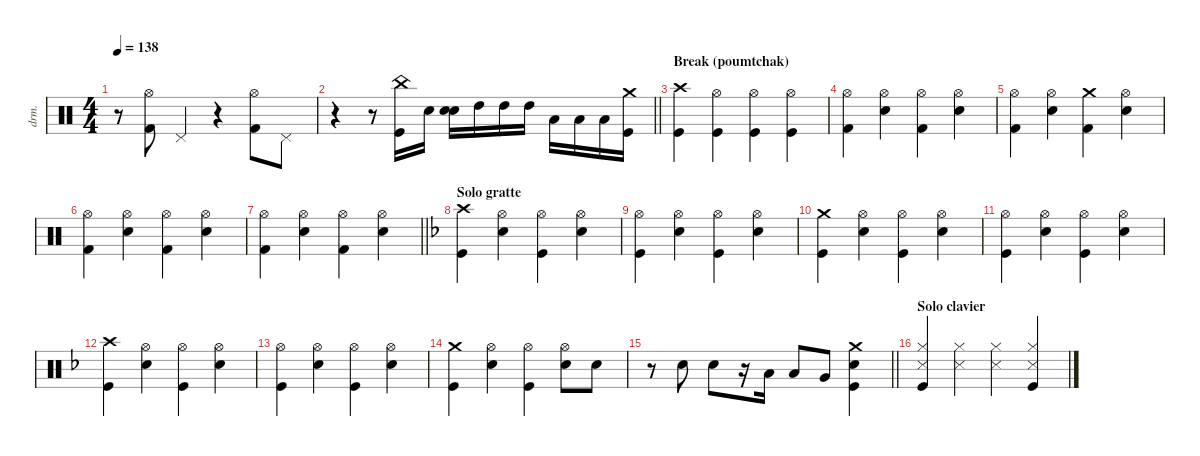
\defaultSystemsLayout 4
\hideDynamics
\bracketExtendMode nobrackets
\track ("Percussions" "drm.") {instrument percussion}
\staff {score}
\articulation defaults
\ts (4 4)
\tempo 138
\clef neutral
\ks aminor
r.8{dy f} ("Kick (hit) 2" "Hi-Hat (open)").8 "Pedal Hi-Hat (hit)".4 r.4 ("Kick (hit) 2" "Hi-Hat (open)").8 "Pedal Hi-Hat (hit)".8 |
\barLineRight lightlight
r.4 r.8 ("China (hit)" "Kick (hit)").16 "Snare (hit) 2".16 ("Snare (hit) 2" "Snare (hit) 2").16 "High Tom (hit)".16 "High Tom (hit)".16 "High Tom (hit)".16 "Low Tom (hit)".16 "Low Tom (hit)".16 "Low Tom (hit)".16 ("Kick (hit)" "Crash medium (hit)").16 |
\section ("" "Break (poumtchak)")
("Crash high (hit)" "Kick (hit)").4 ("Hi-Hat (open)" "Kick (hit)").4 ("Hi-Hat (open)" "Kick (hit)").4 ("Hi-Hat (open)" "Kick (hit)").4 |
("Hi-Hat (open)" "Kick (hit) 2").4 ("Hi-Hat (open)" "Snare (hit) 2").4 ("Hi-Hat (open)" "Kick (hit) 2").4 ("Hi-Hat (open)" "Snare (hit) 2").4 |
("Hi-Hat (open)" "Kick (hit) 2").4 ("Hi-Hat (open)" "Snare (hit) 2").4 ("Crash medium (hit)" "Kick (hit) 2").4 ("Hi-Hat (open)" "Snare (hit) 2").4 |
("Hi-Hat (open)" "Kick (hit) 2").4 ("Hi-Hat (open)" "Snare (hit) 2").4 ("Hi-Hat (open)" "Kick (hit) 2").4 ("Hi-Hat (open)" "Snare (hit) 2").4 |
\barLineRight lightlight
("Hi-Hat (open)" "Kick (hit) 2").4 ("Hi-Hat (open)" "Snare (hit) 2").4 ("Hi-Hat (open)" "Kick (hit) 2").4 ("Hi-Hat (open)" "Snare (hit) 2").4 |
\section ("" "Solo gratte")
\ks dminor
("Crash high (hit)"{acc forcenatural} "Kick (hit)"{acc forcenatural}).4 ("Hi-Hat (open)"{acc forcenatural} "Snare (hit) 2"{acc forcenatural}).4 ("Hi-Hat (open)"{acc forcenatural} "Kick (hit)"{acc forcenatural}).4 ("Hi-Hat (open)"{acc forcenatural} "Snare (hit) 2"{acc forcenatural}).4 |
("Hi-Hat (open)"{acc forcenatural} "Kick (hit)"{acc forcenatural}).4 ("Hi-Hat (open)"{acc forcenatural} "Snare (hit) 2"{acc forcenatural}).4 ("Hi-Hat (open)"{acc forcenatural} "Kick (hit)"{acc forcenatural}).4 ("Hi-Hat (open)"{acc forcenatural} "Snare (hit) 2"{acc forcenatural}).4 |
("Crash medium (hit)"{acc forcenatural} "Kick (hit)"{acc forcenatural}).4 ("Hi-Hat (open)"{acc forcenatural} "Snare (hit) 2"{acc forcenatural}).4 ("Hi-Hat (open)"{acc forcenatural} "Kick (hit)"{acc forcenatural}).4 ("Hi-Hat (open)"{acc forcenatural} "Snare (hit) 2"{acc forcenatural}).4 |
("Hi-Hat (open)"{acc forcenatural} "Kick (hit)"{acc forcenatural}).4 ("Hi-Hat (open)"{acc forcenatural} "Snare (hit) 2"{acc forcenatural}).4 ("Hi-Hat (open)"{acc forcenatural} "Kick (hit)"{acc forcenatural}).4 ("Hi-Hat (open)"{acc forcenatural} "Snare (hit) 2"{acc forcenatural}).4 |
("Crash high (hit)"{acc forcenatural} "Kick (hit)"{acc forcenatural}).4 ("Hi-Hat (open)"{acc forcenatural} "Snare (hit) 2"{acc forcenatural}).4 ("Hi-Hat (open)"{acc forcenatural} "Kick (hit)"{acc forcenatural}).4 ("Hi-Hat (open)"{acc forcenatural} "Snare (hit) 2"{acc forcenatural}).4 |
("Hi-Hat (open)"{acc forcenatural} "Kick (hit)"{acc forcenatural}).4 ("Hi-Hat (open)"{acc forcenatural} "Snare (hit) 2"{acc forcenatural}).4 ("Hi-Hat (open)"{acc forcenatural} "Kick (hit)"{acc forcenatural}).4 ("Hi-Hat (open)"{acc forcenatural} "Snare (hit) 2"{acc forcenatural}).4 |
("Crash medium (hit)"{acc forcenatural} "Kick (hit)"{acc forcenatural}).4 ("Hi-Hat (open)"{acc forcenatural} "Snare (hit) 2"{acc forcenatural}).4 ("Hi-Hat (open)"{acc forcenatural} "Kick (hit)"{acc forcenatural}).4 ("Hi-Hat (open)"{acc forcenatural} "Snare (hit) 2"{acc forcenatural}).8 "Snare (hit) 2"{acc forcenatural}.8 |
\barLineRight lightlight
r.8 "Snare (hit) 2"{acc forcenatural}.8 "Snare (hit) 2"{acc forcenatural}.8 r.16 "Low Tom (hit)"{acc forcenatural}.16 "Low Tom (hit)"{acc forcenatural}.8 "Very Low Tom (hit)"{acc forcenatural}.8 ("Crash medium (hit)"{acc forcenatural} "Snare (hit) 2"{acc forcenatural} "Kick (hit)"{acc forcenatural}).4 |
\section ("" "Solo clavier")
("Hi-Hat (closed)"{acc forcenatural} "Snare (side stick) 3"{acc forcenatural} "Kick (hit)"{acc forcenatural}).4 ("Hi-Hat (closed)"{acc forcenatural} "Snare (side stick) 3"{acc forcenatural}).4 ("Hi-Hat (closed)"{acc forcenatural} "Snare (side stick) 3"{acc forcenatural}).4 ("Hi-Hat (closed)"{acc forcenatural} "Snare (side stick) 3"{acc forcenatural} "Kick (hit)"{acc forcenatural}).4
